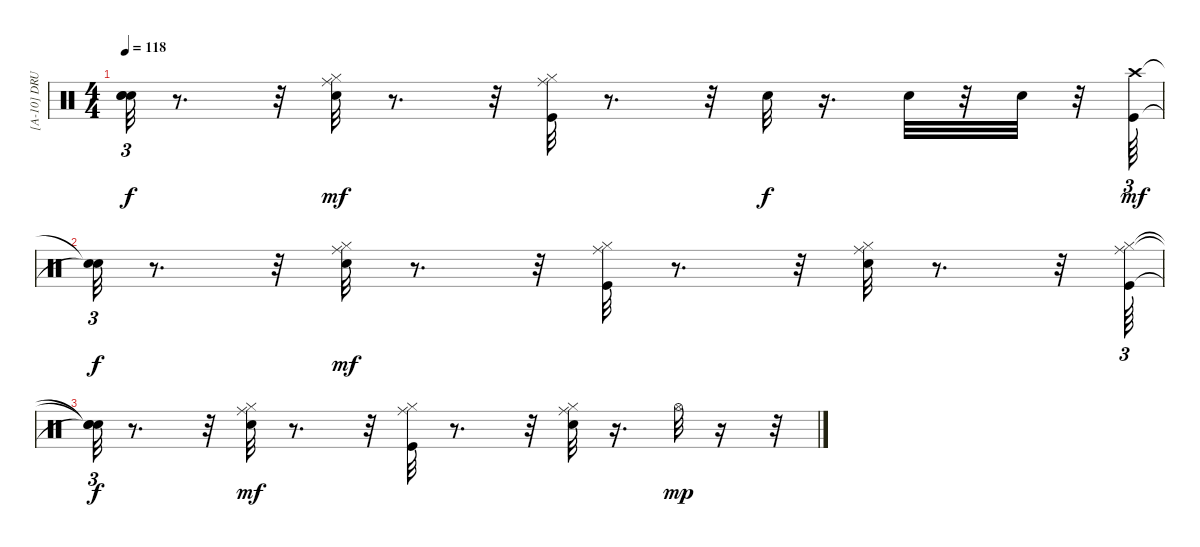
\track ("[A-10] DRUM" "[A-10] DRU") {instrument percussion}
\staff {score}
\articulation defaults
\ts (4 4)
\tempo 118
\clef neutral
\ks c
("Snare (hit)"{t} "Snare (hit)"{t} "Snare (hit)"{t}).32{tu (3 2) dy f} r.8{d} r.32 ("Snare (hit) 2" "Hi-Hat (closed)" "Ride (middle)").32{dy mf} r.8{d} r.32 ("Kick (hit)" "Hi-Hat (closed)" "Ride (middle)").32 r.8{d} r.32 "Snare (hit) 2".32{dy f} r.16{d} "Snare (hit) 2".32 r.32 "Snare (hit) 2".32 r.32 ("Kick (hit)" "Crash high (hit)").64{tu (3 2) dy mf} |
("Snare (hit)"{t} "Snare (hit)"{t}).32{tu (3 2) dy f} r.8{d} r.32 ("Snare (hit) 2" "Hi-Hat (closed)" "Ride (middle)").32{dy mf} r.8{d} r.32 ("Kick (hit)" "Hi-Hat (closed)" "Ride (middle)").32 r.8{d} r.32 ("Snare (hit) 2" "Hi-Hat (closed)" "Ride (middle)").32 r.8{d} r.32 ("Kick (hit)" "Hi-Hat (closed)" "Ride (middle)").64{tu (3 2)} |
("Snare (hit)"{t} "Snare (hit)"{t} "Snare (hit)"{t}).32{tu (3 2) dy f} r.8{d} r.32 ("Snare (hit) 2" "Hi-Hat (closed)" "Ride (middle)").32{dy mf} r.8{d} r.32 ("Kick (hit)" "Hi-Hat (closed)" "Ride (middle)").32 r.8{d} r.32 ("Snare (hit) 2" "Hi-Hat (closed)" "Ride (middle)").32 r.16{d} "Hi-Hat (open)".32{dy mp} r.16 r.32
